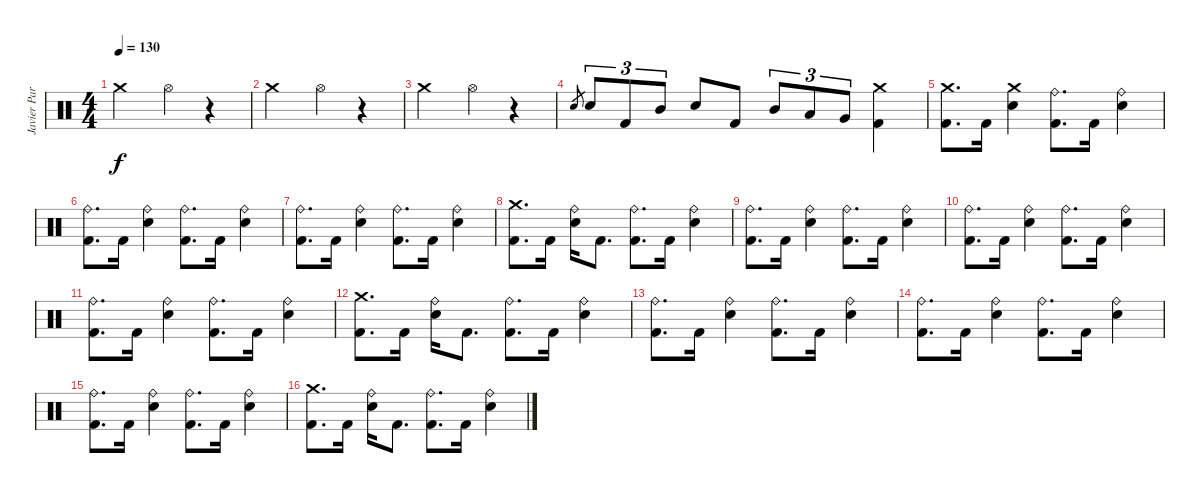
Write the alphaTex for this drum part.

\track ("Javier Partida" "Javier Par") {instrument percussion}
\staff {score}
\articulation defaults
\ts (4 4)
\tempo 130
\clef neutral
\ks c "Crash medium (hit)".2{dy f} "Hi-Hat (open)".4
r.4 |
"Crash medium (hit)".2 "Hi-Hat (open)".4 r.4 |
"Crash medium (hit)".2 "Hi-Hat (open)".4 r.4 |
"Electric Snare (hit)".8{gr} "Electric Snare (hit)".8{tu (3 2)} "Kick (hit) 2".8{tu (3 2)} "Mid Tom (hit)".8{tu (3 2)} "Electric Snare (hit)".8 "Kick (hit) 2".8 "Mid Tom (hit)".8{tu (3 2)} "Low Tom (hit)".8{tu (3 2)} "Very Low Tom (hit)".8{tu (3 2)} ("Crash medium (hit)" "Kick (hit) 2").4 |
("Crash medium (hit)" "Kick (hit) 2").8{d} "Kick (hit) 2".16 ("Crash medium (hit)" "Electric Snare (hit)").4 ("Ride (bell)" "Kick (hit) 2").8{d} "Kick (hit) 2".16 ("Ride (bell)" "Electric Snare (hit)").4 |
("Ride (bell)" "Kick (hit) 2").8{d} "Kick (hit) 2".16 ("Ride (bell)" "Electric Snare (hit)").4 ("Ride (bell)" "Kick (hit) 2").8{d} "Kick (hit) 2".16 ("Ride (bell)" "Electric Snare (hit)").4 |
("Ride (bell)" "Kick (hit) 2").8{d} "Kick (hit) 2".16 ("Ride (bell)" "Electric Snare (hit)").4 ("Ride (bell)" "Kick (hit) 2").8{d} "Kick (hit) 2".16 ("Ride (bell)" "Electric Snare (hit)").4 |
("Crash medium (hit)" "Kick (hit) 2").8{d} "Kick (hit) 2".16 ("Ride (bell)" "Electric Snare (hit)").16 "Kick (hit) 2".8{d} ("Ride (bell)" "Kick (hit) 2").8{d} "Kick (hit) 2".16 ("Ride (bell)" "Electric Snare (hit)").4 |
("Ride (bell)" "Kick (hit) 2").8{d} "Kick (hit) 2".16 ("Ride (bell)" "Electric Snare (hit)").4 ("Ride (bell)" "Kick (hit) 2").8{d} "Kick (hit) 2".16 ("Ride (bell)" "Electric Snare (hit)").4 |
("Ride (bell)" "Kick (hit) 2").8{d} "Kick (hit) 2".16 ("Ride (bell)" "Electric Snare (hit)").4 ("Ride (bell)" "Kick (hit) 2").8{d} "Kick (hit) 2".16 ("Ride (bell)" "Electric Snare (hit)").4 |
("Ride (bell)" "Kick (hit) 2").8{d} "Kick (hit) 2".16 ("Ride (bell)" "Electric Snare (hit)").4 ("Ride (bell)" "Kick (hit) 2").8{d} "Kick (hit) 2".16 ("Ride (bell)" "Electric Snare (hit)").4 |
("Crash medium (hit)" "Kick (hit) 2").8{d} "Kick (hit) 2".16 ("Ride (bell)" "Electric Snare (hit)").16 "Kick (hit) 2".8{d} ("Ride (bell)" "Kick (hit) 2").8{d} "Kick (hit) 2".16 ("Ride (bell)" "Electric Snare (hit)").4 |
("Ride (bell)" "Kick (hit) 2").8{d} "Kick (hit) 2".16 ("Ride (bell)" "Electric Snare (hit)").4 ("Ride (bell)" "Kick (hit) 2").8{d} "Kick (hit) 2".16 ("Ride (bell)" "Electric Snare (hit)").4 |
("Ride (bell)" "Kick (hit) 2").8{d} "Kick (hit) 2".16 ("Ride (bell)" "Electric Snare (hit)").4 ("Ride (bell)" "Kick (hit) 2").8{d} "Kick (hit) 2".16 ("Ride (bell)" "Electric Snare (hit)").4 |
("Ride (bell)" "Kick (hit) 2").8{d} "Kick (hit) 2".16 ("Ride (bell)" "Electric Snare (hit)").4 ("Ride (bell)" "Kick (hit) 2").8{d} "Kick (hit) 2".16 ("Ride (bell)" "Electric Snare (hit)").4 |
("Crash medium (hit)" "Kick (hit) 2").8{d} "Kick (hit) 2".16 ("Ride (bell)" "Electric Snare (hit)").16 "Kick (hit) 2".8{d} ("Ride (bell)" "Kick (hit) 2").8{d} "Kick (hit) 2".16 ("Ride (bell)" "Electric Snare (hit)").4
